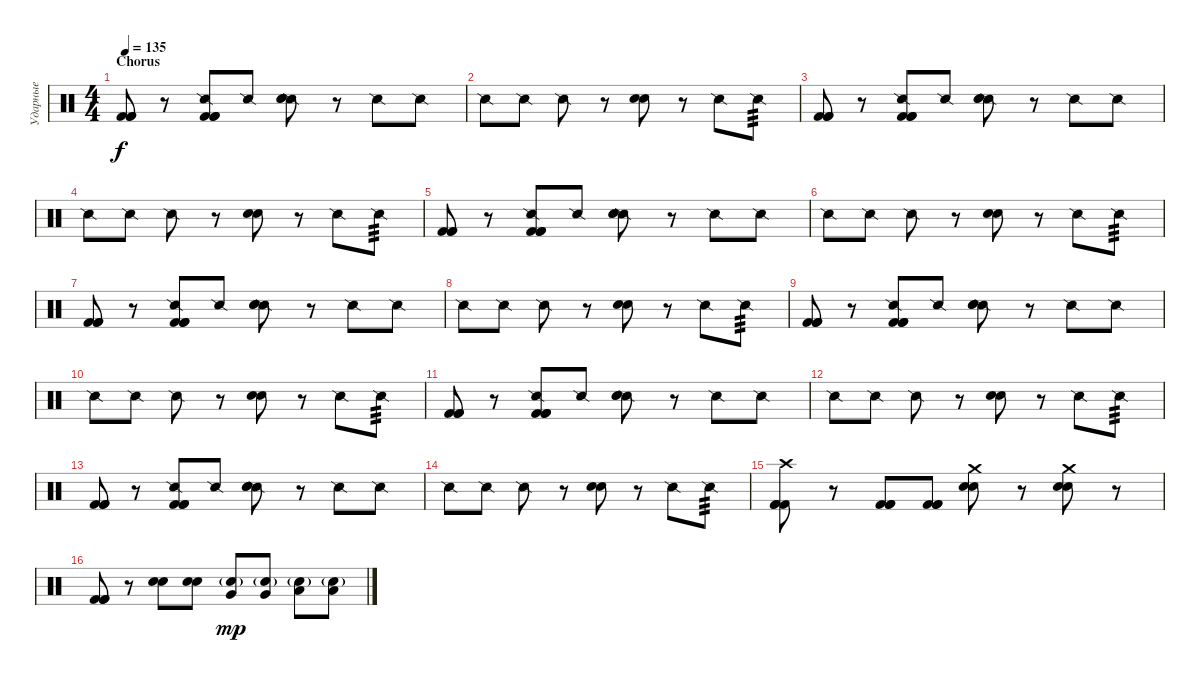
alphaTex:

\track ("Ударные" "Ударные") {instrument percussion}
\staff {score}
\articulation defaults
\ts (4 4)
\section ("" "Chorus")
\tempo 135
\clef neutral
\ks c
("Kick (hit) 2" "Kick (hit) 2" "Kick (hit) 2").8{dy f} r.8 ("Snare (side stick) 2" "Kick (hit) 2" "Kick (hit) 2" "Kick (hit) 2").8 "Snare (side stick) 2".8 ("Snare (side stick) 2" "Electric Snare (hit)" "Electric Snare (hit)").8 r.8 "Snare (side stick) 2".8 "Snare (side stick) 2".8 |
"Snare (side stick) 2".8 "Snare (side stick) 2".8 "Snare (side stick) 2".8 r.8 ("Electric Snare (hit)" "Electric Snare (hit)").8 r.8 "Snare (side stick) 2".8 "Snare (side stick) 2".8{tp 3} |
("Kick (hit) 2" "Kick (hit) 2" "Kick (hit) 2").8 r.8 ("Snare (side stick) 2" "Kick (hit) 2" "Kick (hit) 2" "Kick (hit) 2").8 "Snare (side stick) 2".8 ("Snare (side stick) 2" "Electric Snare (hit)" "Electric Snare (hit)").8 r.8 "Snare (side stick) 2".8 "Snare (side stick) 2".8 |
"Snare (side stick) 2".8 "Snare (side stick) 2".8 "Snare (side stick) 2".8 r.8 ("Electric Snare (hit)" "Electric Snare (hit)").8 r.8 "Snare (side stick) 2".8 "Snare (side stick) 2".8{tp 3} |
("Kick (hit) 2" "Kick (hit) 2" "Kick (hit) 2").8 r.8 ("Snare (side stick) 2" "Kick (hit) 2" "Kick (hit) 2" "Kick (hit) 2").8 "Snare (side stick) 2".8 ("Snare (side stick) 2" "Electric Snare (hit)" "Electric Snare (hit)").8 r.8 "Snare (side stick) 2".8 "Snare (side stick) 2".8 |
"Snare (side stick) 2".8 "Snare (side stick) 2".8 "Snare (side stick) 2".8 r.8 ("Electric Snare (hit)" "Electric Snare (hit)").8 r.8 "Snare (side stick) 2".8 "Snare (side stick) 2".8{tp 3} |
("Kick (hit) 2" "Kick (hit) 2" "Kick (hit) 2").8 r.8 ("Snare (side stick) 2" "Kick (hit) 2" "Kick (hit) 2" "Kick (hit) 2").8 "Snare (side stick) 2".8 ("Snare (side stick) 2" "Electric Snare (hit)" "Electric Snare (hit)").8 r.8 "Snare (side stick) 2".8 "Snare (side stick) 2".8 |
"Snare (side stick) 2".8 "Snare (side stick) 2".8 "Snare (side stick) 2".8 r.8 ("Electric Snare (hit)" "Electric Snare (hit)").8 r.8 "Snare (side stick) 2".8 "Snare (side stick) 2".8{tp 3} |
("Kick (hit) 2" "Kick (hit) 2" "Kick (hit) 2").8 r.8 ("Snare (side stick) 2" "Kick (hit) 2" "Kick (hit) 2" "Kick (hit) 2").8 "Snare (side stick) 2".8 ("Snare (side stick) 2" "Electric Snare (hit)" "Electric Snare (hit)").8 r.8 "Snare (side stick) 2".8 "Snare (side stick) 2".8 |
"Snare (side stick) 2".8 "Snare (side stick) 2".8 "Snare (side stick) 2".8 r.8 ("Electric Snare (hit)" "Electric Snare (hit)").8 r.8 "Snare (side stick) 2".8 "Snare (side stick) 2".8{tp 3} |
("Kick (hit) 2" "Kick (hit) 2" "Kick (hit) 2").8 r.8 ("Snare (side stick) 2" "Kick (hit) 2" "Kick (hit) 2" "Kick (hit) 2").8 "Snare (side stick) 2".8 ("Snare (side stick) 2" "Electric Snare (hit)" "Electric Snare (hit)").8 r.8 "Snare (side stick) 2".8 "Snare (side stick) 2".8 |
"Snare (side stick) 2".8 "Snare (side stick) 2".8 "Snare (side stick) 2".8 r.8 ("Electric Snare (hit)" "Electric Snare (hit)").8 r.8 "Snare (side stick) 2".8 "Snare (side stick) 2".8{tp 3} |
("Kick (hit) 2" "Kick (hit) 2" "Kick (hit) 2").8 r.8 ("Snare (side stick) 2" "Kick (hit) 2" "Kick (hit) 2" "Kick (hit) 2").8 "Snare (side stick) 2".8 ("Snare (side stick) 2" "Electric Snare (hit)" "Electric Snare (hit)").8 r.8 "Snare (side stick) 2".8 "Snare (side stick) 2".8 |
"Snare (side stick) 2".8 "Snare (side stick) 2".8 "Snare (side stick) 2".8 r.8 ("Electric Snare (hit)" "Electric Snare (hit)").8 r.8 "Snare (side stick) 2".8 "Snare (side stick) 2".8{tp 3} |
("Crash high (hit)" "Kick (hit) 2" "Kick (hit) 2" "Kick (hit) 2").8 r.8 ("Kick (hit) 2" "Kick (hit) 2" "Kick (hit) 2").8 ("Kick (hit) 2" "Kick (hit) 2" "Kick (hit) 2").8 ("Crash medium (hit)" "Electric Snare (hit)" "Electric Snare (hit)").8 r.8 ("Crash medium (hit)" "Electric Snare (hit)" "Electric Snare (hit)").8 r.8 |
("Kick (hit) 2" "Kick (hit) 2" "Kick (hit) 2").8 r.8 ("Electric Snare (hit)" "Electric Snare (hit)").8 ("Electric Snare (hit)" "Electric Snare (hit)").8 ("Very Low Tom (hit)" "Electric Snare (hit)"{g}).8{dy mp} ("Very Low Tom (hit)" "Electric Snare (hit)"{g}).8 ("Low Floor Tom (hit)" "Electric Snare (hit)"{g}).8 ("Low Floor Tom (hit)" "Electric Snare (hit)"{g}).8
